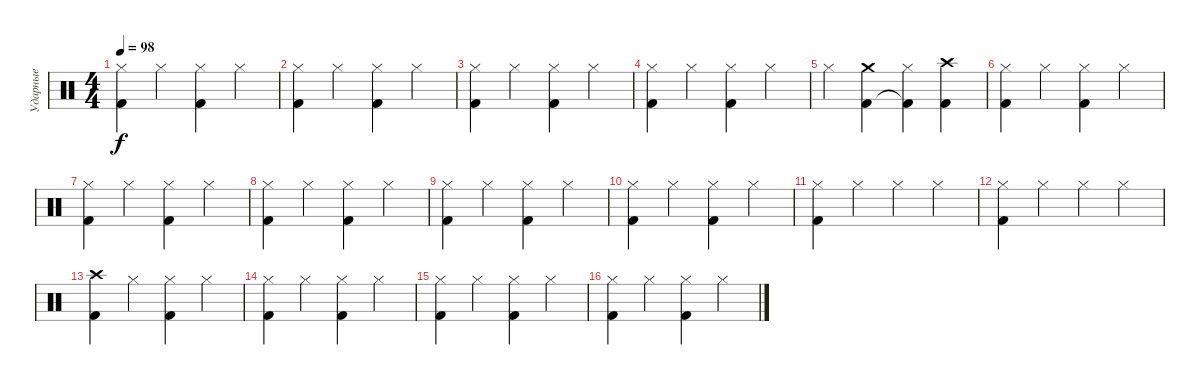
\track ("Ударные" "Ударные") {instrument percussion}
\staff {score}
\articulation defaults
\ts (4 4)
\tempo 98
\clef neutral
\ks c
("Hi-Hat (closed)" "Kick (hit) 2").4{dy f} "Hi-Hat (closed)".4 ("Hi-Hat (closed)" "Kick (hit) 2").4 "Hi-Hat (closed)".4 |
("Hi-Hat (closed)" "Kick (hit) 2").4 "Hi-Hat (closed)".4 ("Hi-Hat (closed)" "Kick (hit) 2").4 "Hi-Hat (closed)".4 |
("Hi-Hat (closed)" "Kick (hit) 2").4 "Hi-Hat (closed)".4 ("Hi-Hat (closed)" "Kick (hit) 2").4 "Hi-Hat (closed)".4 |
("Hi-Hat (closed)" "Kick (hit) 2").4 "Hi-Hat (closed)".4 ("Hi-Hat (closed)" "Kick (hit) 2").4 "Hi-Hat (closed)".4 |
"Hi-Hat (closed)".4 ("Crash medium (hit)" "Kick (hit) 2").4 ("Hi-Hat (closed)" "Kick (hit) 2"{t}).4 ("Crash high (hit)" "Kick (hit) 2").4 |
("Hi-Hat (closed)" "Kick (hit) 2").4 "Hi-Hat (closed)".4 ("Hi-Hat (closed)" "Kick (hit) 2").4 "Hi-Hat (closed)".4 |
("Hi-Hat (closed)" "Kick (hit) 2").4 "Hi-Hat (closed)".4 ("Hi-Hat (closed)" "Kick (hit) 2").4 "Hi-Hat (closed)".4 |
("Hi-Hat (closed)" "Kick (hit) 2").4 "Hi-Hat (closed)".4 ("Hi-Hat (closed)" "Kick (hit) 2").4 "Hi-Hat (closed)".4 |
("Hi-Hat (closed)" "Kick (hit) 2").4 "Hi-Hat (closed)".4 ("Hi-Hat (closed)" "Kick (hit) 2").4 "Hi-Hat (closed)".4 |
("Hi-Hat (closed)" "Kick (hit) 2").4 "Hi-Hat (closed)".4 ("Hi-Hat (closed)" "Kick (hit) 2").4 "Hi-Hat (closed)".4 |
("Hi-Hat (closed)" "Kick (hit) 2").4 "Hi-Hat (closed)".4 "Hi-Hat (closed)".4 "Hi-Hat (closed)".4 |
("Hi-Hat (closed)" "Kick (hit) 2").4 "Hi-Hat (closed)".4 "Hi-Hat (closed)".4 "Hi-Hat (closed)".4 |
("Crash high (hit)" "Kick (hit) 2").4 "Hi-Hat (closed)".4 ("Hi-Hat (closed)" "Kick (hit) 2").4 "Hi-Hat (closed)".4 |
("Hi-Hat (closed)" "Kick (hit) 2").4 "Hi-Hat (closed)".4 ("Hi-Hat (closed)" "Kick (hit) 2").4 "Hi-Hat (closed)".4 |
("Hi-Hat (closed)" "Kick (hit) 2").4 "Hi-Hat (closed)".4 ("Hi-Hat (closed)" "Kick (hit) 2").4 "Hi-Hat (closed)".4 |
("Hi-Hat (closed)" "Kick (hit) 2").4 "Hi-Hat (closed)".4 ("Hi-Hat (closed)" "Kick (hit) 2").4 "Hi-Hat (closed)".4
